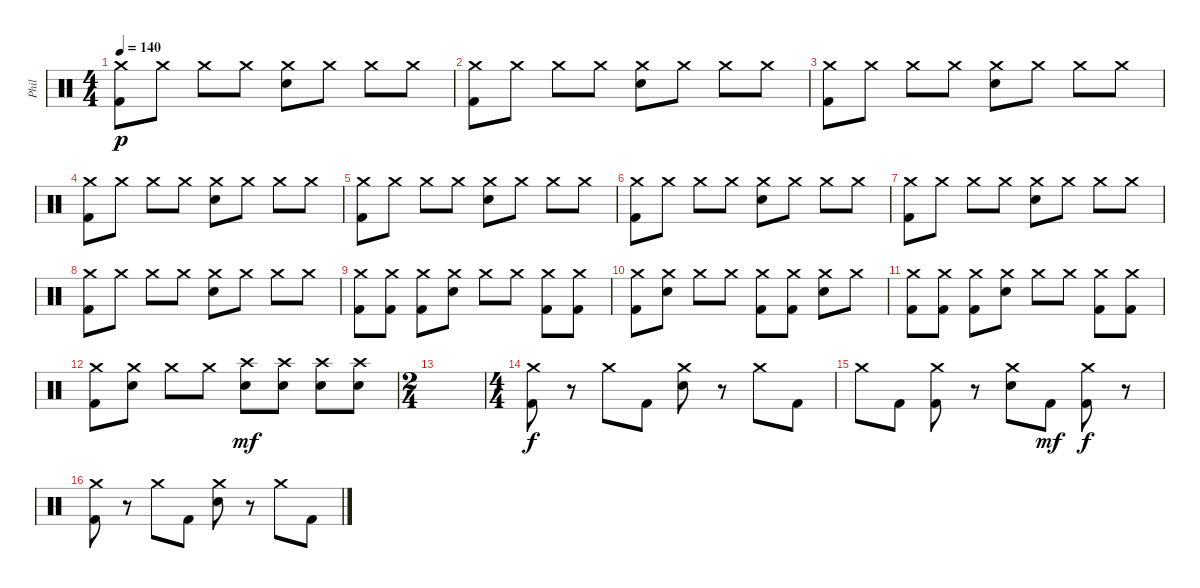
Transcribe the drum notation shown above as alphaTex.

\track ("Phil" "Phil") {instrument percussion}
\staff {score}
\articulation defaults
\ts (4 4)
\tempo 140
\clef neutral
\ks c
("Crash medium (hit)" "Kick (hit) 2").8{dy p} "Crash medium (hit)".8 "Crash medium (hit)".8 "Crash medium (hit)".8 ("Crash medium (hit)" "Snare (hit) 2").8 "Crash medium (hit)".8 "Crash medium (hit)".8 "Crash medium (hit)".8 |
("Crash medium (hit)" "Kick (hit) 2").8 "Crash medium (hit)".8 "Crash medium (hit)".8 "Crash medium (hit)".8 ("Crash medium (hit)" "Snare (hit) 2").8 "Crash medium (hit)".8 "Crash medium (hit)".8 "Crash medium (hit)".8 |
("Crash medium (hit)" "Kick (hit) 2").8 "Crash medium (hit)".8 "Crash medium (hit)".8 "Crash medium (hit)".8 ("Crash medium (hit)" "Snare (hit) 2").8 "Crash medium (hit)".8 "Crash medium (hit)".8 "Crash medium (hit)".8 |
("Crash medium (hit)" "Kick (hit) 2").8 "Crash medium (hit)".8 "Crash medium (hit)".8 "Crash medium (hit)".8 ("Crash medium (hit)" "Snare (hit) 2").8 "Crash medium (hit)".8 "Crash medium (hit)".8 "Crash medium (hit)".8 |
("Crash medium (hit)" "Kick (hit) 2").8 "Crash medium (hit)".8 "Crash medium (hit)".8 "Crash medium (hit)".8 ("Crash medium (hit)" "Snare (hit) 2").8 "Crash medium (hit)".8 "Crash medium (hit)".8 "Crash medium (hit)".8 |
("Crash medium (hit)" "Kick (hit) 2").8 "Crash medium (hit)".8 "Crash medium (hit)".8 "Crash medium (hit)".8 ("Crash medium (hit)" "Snare (hit) 2").8 "Crash medium (hit)".8 "Crash medium (hit)".8 "Crash medium (hit)".8 |
("Crash medium (hit)" "Kick (hit) 2").8 "Crash medium (hit)".8 "Crash medium (hit)".8 "Crash medium (hit)".8 ("Crash medium (hit)" "Snare (hit) 2").8 "Crash medium (hit)".8 "Crash medium (hit)".8 "Crash medium (hit)".8 |
("Crash medium (hit)" "Kick (hit) 2").8 "Crash medium (hit)".8 "Crash medium (hit)".8 "Crash medium (hit)".8 ("Crash medium (hit)" "Snare (hit) 2").8 "Crash medium (hit)".8 "Crash medium (hit)".8 "Crash medium (hit)".8 |
("Crash medium (hit)" "Kick (hit) 2").8 ("Crash medium (hit)" "Kick (hit) 2").8 ("Crash medium (hit)" "Kick (hit) 2").8 ("Crash medium (hit)" "Snare (hit) 2").8 "Crash medium (hit)".8 "Crash medium (hit)".8 ("Crash medium (hit)" "Kick (hit) 2").8 ("Crash medium (hit)" "Kick (hit) 2").8 |
("Crash medium (hit)" "Kick (hit) 2").8 ("Crash medium (hit)" "Snare (hit) 2").8 "Crash medium (hit)".8 "Crash medium (hit)".8 ("Crash medium (hit)" "Kick (hit) 2").8 ("Crash medium (hit)" "Kick (hit) 2").8 ("Crash medium (hit)" "Snare (hit) 2").8 "Crash medium (hit)".8 |
("Crash medium (hit)" "Kick (hit) 2").8 ("Crash medium (hit)" "Kick (hit) 2").8 ("Crash medium (hit)" "Kick (hit) 2").8 ("Crash medium (hit)" "Snare (hit) 2").8 "Crash medium (hit)".8 "Crash medium (hit)".8 ("Crash medium (hit)" "Kick (hit) 2").8 ("Crash medium (hit)" "Kick (hit) 2").8 |
("Crash medium (hit)" "Kick (hit) 2").8 ("Crash medium (hit)" "Snare (hit) 2").8 "Crash medium (hit)".8 "Crash medium (hit)".8 ("Crash high (hit)" "Snare (hit) 2").8{dy mf} ("Crash high (hit)" "Snare (hit) 2").8 ("Crash high (hit)" "Snare (hit) 2").8 ("Crash high (hit)" "Snare (hit) 2").8 |
\ts (2 4)
|
\ts (4 4)
("Crash medium (hit)" "Kick (hit) 2").8{dy f} r.8 "Crash medium (hit)".8 "Kick (hit) 2".8 ("Crash medium (hit)" "Snare (hit) 2").8 r.8 "Crash medium (hit)".8 "Kick (hit) 2".8 |
"Crash medium (hit)".8 "Kick (hit) 2".8 ("Crash medium (hit)" "Kick (hit) 2").8 r.8 ("Crash medium (hit)" "Snare (hit) 2").8 "Kick (hit) 2".8{dy mf} ("Crash medium (hit)" "Kick (hit) 2").8{dy f} r.8 |
("Crash medium (hit)" "Kick (hit) 2").8 r.8 "Crash medium (hit)".8 "Kick (hit) 2".8 ("Crash medium (hit)" "Snare (hit) 2").8 r.8 "Crash medium (hit)".8 "Kick (hit) 2".8
